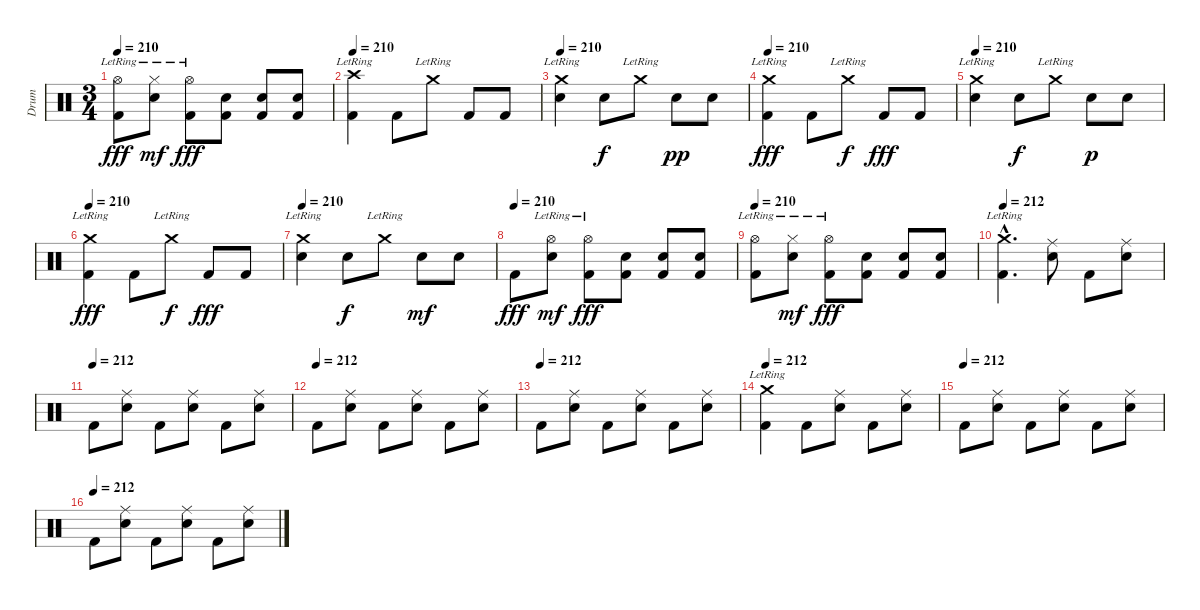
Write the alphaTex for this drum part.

\track ("Drum" "Drum") {instrument percussion}
\staff {score}
\articulation defaults
\ts (3 4)
\tempo 210
\clef neutral
\ks c
("Hi-Hat (open)"{lr} "Kick (hit) 2").8{dy fff} ("Hi-Hat (closed)"{lr} "Electric Snare (hit)").8{dy mf} ("Hi-Hat (open)"{lr} "Kick (hit) 2").8{dy fff} ("Electric Snare (hit)" "Kick (hit) 2").8 ("Electric Snare (hit)" "Kick (hit) 2").8 ("Electric Snare (hit)" "Kick (hit) 2").8 |
\tempo 210
("Crash high (hit)"{lr} "Kick (hit) 2").4 "Kick (hit) 2".8 "Crash medium (hit)"{lr}.8 "Kick (hit) 2".8 "Kick (hit) 2".8 |
\tempo 210
("Crash medium (hit)"{lr} "Electric Snare (hit)").4 "Electric Snare (hit)".8{dy f} "Crash medium (hit)"{lr}.8 "Electric Snare (hit)".8{dy pp} "Electric Snare (hit)".8 |
\tempo 210
("Crash medium (hit)"{lr} "Kick (hit) 2").4{dy fff} "Kick (hit) 2".8 "Crash medium (hit)"{lr}.8{dy f} "Kick (hit) 2".8{dy fff} "Kick (hit) 2".8 |
\tempo 210
("Crash medium (hit)"{lr} "Electric Snare (hit)").4 "Electric Snare (hit)".8{dy f} "Crash medium (hit)"{lr}.8 "Electric Snare (hit)".8{dy p} "Electric Snare (hit)".8 |
\tempo 210
("Crash medium (hit)"{lr} "Kick (hit) 2").4{dy fff} "Kick (hit) 2".8 "Crash medium (hit)"{lr}.8{dy f} "Kick (hit) 2".8{dy fff} "Kick (hit) 2".8 |
\tempo 210
("Crash medium (hit)"{lr} "Electric Snare (hit)").4 "Electric Snare (hit)".8{dy f} "Crash medium (hit)"{lr}.8 "Electric Snare (hit)".8{dy mf} "Electric Snare (hit)".8 |
\tempo (210)
"Kick (hit) 2".8{dy fff} ("Hi-Hat (open)"{lr} "Electric Snare (hit)").8{dy mf} ("Hi-Hat (open)"{lr} "Kick (hit) 2").8{dy fff} ("Electric Snare (hit)" "Kick (hit) 2").8 ("Electric Snare (hit)" "Kick (hit) 2").8 ("Electric Snare (hit)" "Kick (hit) 2").8 |
\tempo 210
("Hi-Hat (open)"{lr} "Kick (hit) 2").8 ("Hi-Hat (closed)"{lr} "Electric Snare (hit)").8{dy mf} ("Hi-Hat (open)"{lr} "Kick (hit) 2").8{dy fff} ("Electric Snare (hit)" "Kick (hit) 2").8 ("Electric Snare (hit)" "Kick (hit) 2").8 ("Electric Snare (hit)" "Kick (hit) 2").8 |
\tempo 212
("Crash medium (hit)"{hac lr} "Kick (hit) 2"{hac}).4{d} ("Ride (middle)" "Electric Snare (hit)").8 "Kick (hit) 2".8 ("Ride (middle)" "Electric Snare (hit)").8 |
\tempo (212)
"Kick (hit) 2".8 ("Ride (middle)" "Electric Snare (hit)").8 "Kick (hit) 2".8 ("Ride (middle)" "Electric Snare (hit)").8 "Kick (hit) 2".8 ("Ride (middle)" "Electric Snare (hit)").8 |
\tempo (212)
"Kick (hit) 2".8 ("Ride (middle)" "Electric Snare (hit)").8 "Kick (hit) 2".8 ("Ride (middle)" "Electric Snare (hit)").8 "Kick (hit) 2".8 ("Ride (middle)" "Electric Snare (hit)").8 |
\tempo (212)
"Kick (hit) 2".8 ("Ride (middle)" "Electric Snare (hit)").8 "Kick (hit) 2".8 ("Ride (middle)" "Electric Snare (hit)").8 "Kick (hit) 2".8 ("Ride (middle)" "Electric Snare (hit)").8 |
\tempo 212
("Crash medium (hit)"{lr} "Kick (hit) 2").4 "Kick (hit) 2".8 ("Ride (middle)" "Electric Snare (hit)").8 "Kick (hit) 2".8 ("Ride (middle)" "Electric Snare (hit)").8 |
\tempo (212)
"Kick (hit) 2".8 ("Ride (middle)" "Electric Snare (hit)").8 "Kick (hit) 2".8 ("Ride (middle)" "Electric Snare (hit)").8 "Kick (hit) 2".8 ("Ride (middle)" "Electric Snare (hit)").8 |
\tempo (212)
"Kick (hit) 2".8 ("Ride (middle)" "Electric Snare (hit)").8 "Kick (hit) 2".8 ("Ride (middle)" "Electric Snare (hit)").8 "Kick (hit) 2".8 ("Ride (middle)" "Electric Snare (hit)").8
